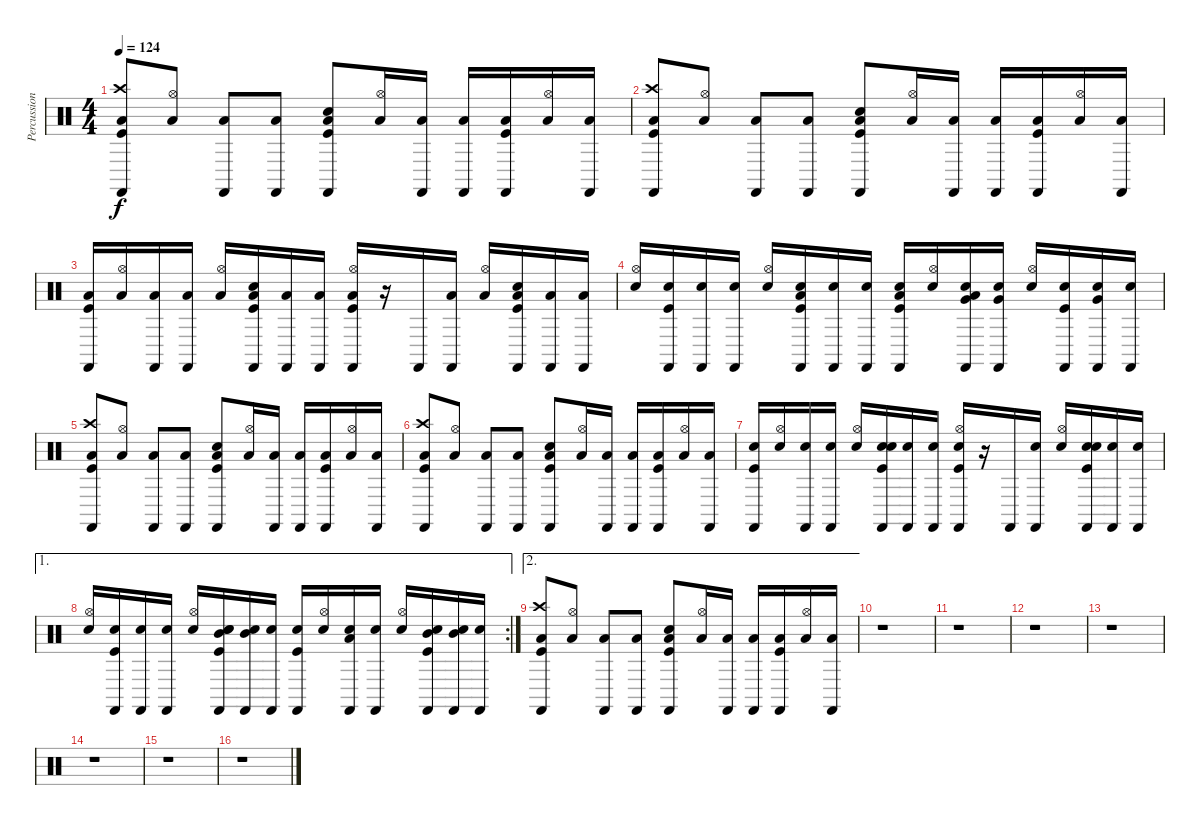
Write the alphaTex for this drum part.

\track ("Percussion" "Percussion") {instrument percussion}
\staff {score}
\articulation defaults
\ts (4 4)
\tempo 124
\clef neutral
\ks c
("Low Floor Tom (hit)" "Kick (hit)" "Crash high (hit)" "Castanets (hit)").8{dy f} ("Low Floor Tom (hit)" "Hi-Hat (open)").8 ("Low Floor Tom (hit)" "Castanets (hit)").8 ("Low Floor Tom (hit)" "Castanets (hit)").8 ("Low Floor Tom (hit)" "Electric Snare (hit)" "Kick (hit)" "Castanets (hit)").8 ("Low Floor Tom (hit)" "Hi-Hat (open)").16 ("Low Floor Tom (hit)" "Castanets (hit)").16 ("Low Floor Tom (hit)" "Castanets (hit)").16 ("Low Floor Tom (hit)" "Kick (hit)" "Castanets (hit)").16 ("Low Floor Tom (hit)" "Hi-Hat (open)").16 ("Low Floor Tom (hit)" "Castanets (hit)").16 |
("Low Floor Tom (hit)" "Kick (hit)" "Crash high (hit)" "Castanets (hit)").8 ("Low Floor Tom (hit)" "Hi-Hat (open)").8 ("Low Floor Tom (hit)" "Castanets (hit)").8 ("Low Floor Tom (hit)" "Castanets (hit)").8 ("Low Floor Tom (hit)" "Electric Snare (hit)" "Kick (hit)" "Castanets (hit)").8 ("Low Floor Tom (hit)" "Hi-Hat (open)").16 ("Low Floor Tom (hit)" "Castanets (hit)").16 ("Low Floor Tom (hit)" "Castanets (hit)").16 ("Low Floor Tom (hit)" "Kick (hit)" "Castanets (hit)").16 ("Low Floor Tom (hit)" "Hi-Hat (open)").16 ("Low Floor Tom (hit)" "Castanets (hit)").16 |
("Low Floor Tom (hit)" "Kick (hit)" "Castanets (hit)").16 ("Low Floor Tom (hit)" "Hi-Hat (open)").16 ("Low Floor Tom (hit)" "Castanets (hit)").16 ("Low Floor Tom (hit)" "Castanets (hit)").16 ("Low Floor Tom (hit)" "Hi-Hat (open)").16 ("Low Floor Tom (hit)" "Electric Snare (hit)" "Kick (hit)" "Castanets (hit)").16 ("Low Floor Tom (hit)" "Castanets (hit)").16 ("Low Floor Tom (hit)" "Castanets (hit)").16 ("Low Floor Tom (hit)" "Kick (hit)" "Castanets (hit)" "Hi-Hat (open)").16 r.16 "Castanets (hit)".16 ("Low Floor Tom (hit)" "Castanets (hit)").16 ("Low Floor Tom (hit)" "Hi-Hat (open)").16 ("Low Floor Tom (hit)" "Electric Snare (hit)" "Kick (hit)" "Castanets (hit)").16 ("Low Floor Tom (hit)" "Castanets (hit)").16 ("Low Floor Tom (hit)" "Castanets (hit)").16 |
("Snare (hit)" "Hi-Hat (open)").16 ("Snare (hit)" "Kick (hit)" "Castanets (hit)").16 ("Snare (hit)" "Castanets (hit)").16 ("Snare (hit)" "Castanets (hit)").16 ("Snare (hit)" "Hi-Hat (open)").16 ("Snare (hit)" "Kick (hit)" "Low Tom (hit)" "Castanets (hit)").16 ("Snare (hit)" "Castanets (hit)").16 ("Snare (hit)" "Castanets (hit)").16 ("Snare (hit)" "Kick (hit)" "Low Tom (hit)" "Castanets (hit)").16 ("Snare (hit)" "Hi-Hat (open)").16 ("Snare (hit)" "Very Low Tom (hit)" "Low Tom (hit)" "Castanets (hit)").16 ("Snare (hit)" "Very Low Tom (hit)" "Castanets (hit)").16 ("Snare (hit)" "Hi-Hat (open)").16 ("Snare (hit)" "Kick (hit)" "Castanets (hit)").16 ("Snare (hit)" "Very Low Tom (hit)" "Castanets (hit)").16 ("Snare (hit)" "Castanets (hit)").16 |
("Low Floor Tom (hit)" "Kick (hit)" "Crash high (hit)" "Castanets (hit)").8 ("Low Floor Tom (hit)" "Hi-Hat (open)").8 ("Low Floor Tom (hit)" "Castanets (hit)").8 ("Low Floor Tom (hit)" "Castanets (hit)").8 ("Low Floor Tom (hit)" "Electric Snare (hit)" "Kick (hit)" "Castanets (hit)").8 ("Low Floor Tom (hit)" "Hi-Hat (open)").16 ("Low Floor Tom (hit)" "Castanets (hit)").16 ("Low Floor Tom (hit)" "Castanets (hit)").16 ("Low Floor Tom (hit)" "Kick (hit)" "Castanets (hit)").16 ("Low Floor Tom (hit)" "Hi-Hat (open)").16 ("Low Floor Tom (hit)" "Castanets (hit)").16 |
("Low Floor Tom (hit)" "Kick (hit)" "Crash high (hit)" "Castanets (hit)").8 ("Low Floor Tom (hit)" "Hi-Hat (open)").8 ("Low Floor Tom (hit)" "Castanets (hit)").8 ("Low Floor Tom (hit)" "Castanets (hit)").8 ("Low Floor Tom (hit)" "Electric Snare (hit)" "Kick (hit)" "Castanets (hit)").8 ("Low Floor Tom (hit)" "Hi-Hat (open)").16 ("Low Floor Tom (hit)" "Castanets (hit)").16 ("Low Floor Tom (hit)" "Castanets (hit)").16 ("Low Floor Tom (hit)" "Kick (hit)" "Castanets (hit)").16 ("Low Floor Tom (hit)" "Hi-Hat (open)").16 ("Low Floor Tom (hit)" "Castanets (hit)").16 |
("Snare (hit)" "Kick (hit)" "Castanets (hit)").16 ("Snare (hit)" "Hi-Hat (open)").16 ("Snare (hit)" "Castanets (hit)").16 ("Snare (hit)" "Castanets (hit)").16 ("Snare (hit)" "Hi-Hat (open)").16 ("Snare (hit)" "Electric Snare (hit)" "Kick (hit)" "Castanets (hit)").16 ("Snare (hit)" "Castanets (hit)").16 ("Snare (hit)" "Castanets (hit)").16 ("Snare (hit)" "Kick (hit)" "Castanets (hit)" "Hi-Hat (open)").16 r.16 "Castanets (hit)".16 ("Snare (hit)" "Castanets (hit)").16 ("Snare (hit)" "Hi-Hat (open)").16 ("Snare (hit)" "Electric Snare (hit)" "Kick (hit)" "Castanets (hit)").16 ("Snare (hit)" "Castanets (hit)").16 ("Snare (hit)" "Castanets (hit)").16 |
\ae 1
\rc 2
("Snare (hit)" "Hi-Hat (open)").16 ("Snare (hit)" "Kick (hit)" "Castanets (hit)").16 ("Snare (hit)" "Castanets (hit)").16 ("Snare (hit)" "Castanets (hit)").16 ("Snare (hit)" "Hi-Hat (open)").16 ("Snare (hit)" "Electric Snare (hit)" "Kick (hit)" "Mid Tom (hit)" "Castanets (hit)").16 ("Snare (hit)" "Mid Tom (hit)" "Castanets (hit)").16 ("Snare (hit)" "Castanets (hit)").16 ("Snare (hit)" "Kick (hit)" "Castanets (hit)").16 ("Snare (hit)" "Hi-Hat (open)").16 ("Snare (hit)" "Low Floor Tom (hit)" "Castanets (hit)").16 ("Snare (hit)" "Castanets (hit)").16 ("Snare (hit)" "Hi-Hat (open)").16 ("Snare (hit)" "Kick (hit)" "Mid Tom (hit)" "Castanets (hit)").16 ("Snare (hit)" "Mid Tom (hit)" "Castanets (hit)").16 ("Snare (hit)" "Castanets (hit)").16 |
\ae 2
("Low Floor Tom (hit)" "Kick (hit)" "Crash high (hit)" "Castanets (hit)").8 ("Low Floor Tom (hit)" "Hi-Hat (open)").8 ("Low Floor Tom (hit)" "Castanets (hit)").8 ("Low Floor Tom (hit)" "Castanets (hit)").8 ("Low Floor Tom (hit)" "Electric Snare (hit)" "Kick (hit)" "Castanets (hit)").8 ("Low Floor Tom (hit)" "Hi-Hat (open)").16 ("Low Floor Tom (hit)" "Castanets (hit)").16 ("Low Floor Tom (hit)" "Castanets (hit)").16 ("Low Floor Tom (hit)" "Kick (hit)" "Castanets (hit)").16 ("Low Floor Tom (hit)" "Hi-Hat (open)").16 ("Low Floor Tom (hit)" "Castanets (hit)").16 |
r.1 |
r.1 |
r.1 |
r.1 |
r.1 |
r.1 |
r.1
